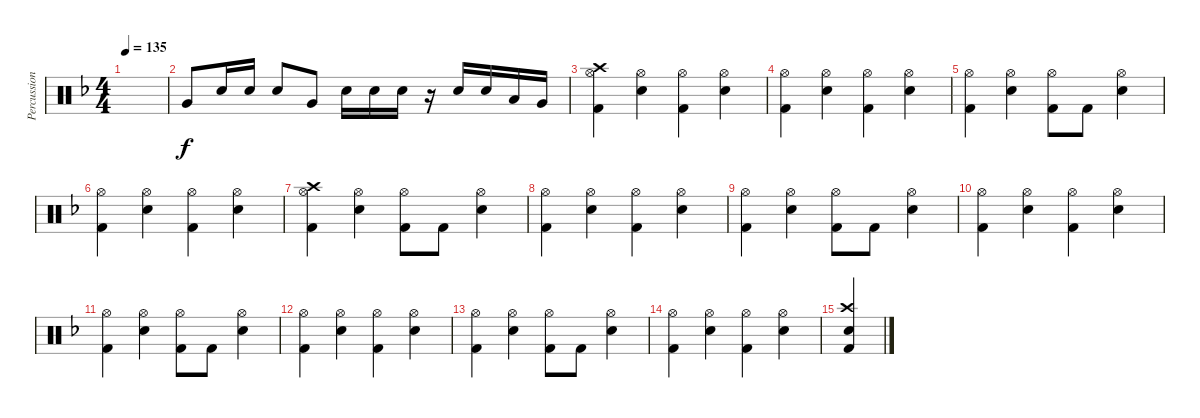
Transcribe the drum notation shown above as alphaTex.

\track ("Percussion" "Percussion") {instrument percussion}
\staff {score}
\articulation defaults
\ts (4 4)
\tempo 135
\clef neutral
\ks f
|
"Very Low Tom (hit)".8 "Snare (hit) 2".16 "Snare (hit) 2".16 "Snare (hit) 2".8 "Very Low Tom (hit)".8 "Snare (hit) 2".16 "Snare (hit) 2".16 "Snare (hit) 2".16 r.16 "Snare (hit) 2".16 "Snare (hit) 2".16 "Low Tom (hit)".16 "Very Low Tom (hit)".16 |
("Crash high (hit)" "Hi-Hat (open)" "Kick (hit) 2").4 ("Hi-Hat (open)" "Snare (hit) 2").4 ("Hi-Hat (open)" "Kick (hit) 2").4 ("Hi-Hat (open)" "Snare (hit) 2").4 |
("Hi-Hat (open)" "Kick (hit) 2").4 ("Hi-Hat (open)" "Snare (hit) 2").4 ("Hi-Hat (open)" "Kick (hit) 2").4 ("Hi-Hat (open)" "Snare (hit) 2").4 |
("Hi-Hat (open)" "Kick (hit) 2").4 ("Hi-Hat (open)" "Snare (hit) 2").4 ("Hi-Hat (open)" "Kick (hit) 2").8 "Kick (hit) 2".8 ("Hi-Hat (open)" "Snare (hit) 2").4 |
("Hi-Hat (open)" "Kick (hit) 2").4 ("Hi-Hat (open)" "Snare (hit) 2").4 ("Hi-Hat (open)" "Kick (hit) 2").4 ("Hi-Hat (open)" "Snare (hit) 2").4 |
("Crash high (hit)" "Hi-Hat (open)" "Kick (hit) 2").4 ("Hi-Hat (open)" "Snare (hit) 2").4 ("Hi-Hat (open)" "Kick (hit) 2").8 "Kick (hit) 2".8 ("Hi-Hat (open)" "Snare (hit) 2").4 |
("Hi-Hat (open)" "Kick (hit) 2").4 ("Hi-Hat (open)" "Snare (hit) 2").4 ("Hi-Hat (open)" "Kick (hit) 2").4 ("Hi-Hat (open)" "Snare (hit) 2").4 |
("Hi-Hat (open)" "Kick (hit) 2").4 ("Hi-Hat (open)" "Snare (hit) 2").4 ("Hi-Hat (open)" "Kick (hit) 2").8 "Kick (hit) 2".8 ("Hi-Hat (open)" "Snare (hit) 2").4 |
("Hi-Hat (open)" "Kick (hit) 2").4 ("Hi-Hat (open)" "Snare (hit) 2").4 ("Hi-Hat (open)" "Kick (hit) 2").4 ("Hi-Hat (open)" "Snare (hit) 2").4 |
("Hi-Hat (open)" "Kick (hit) 2").4 ("Hi-Hat (open)" "Snare (hit) 2").4 ("Hi-Hat (open)" "Kick (hit) 2").8 "Kick (hit) 2".8 ("Hi-Hat (open)" "Snare (hit) 2").4 |
("Hi-Hat (open)" "Kick (hit) 2").4 ("Hi-Hat (open)" "Snare (hit) 2").4 ("Hi-Hat (open)" "Kick (hit) 2").4 ("Hi-Hat (open)" "Snare (hit) 2").4 |
("Hi-Hat (open)" "Kick (hit) 2").4 ("Hi-Hat (open)" "Snare (hit) 2").4 ("Hi-Hat (open)" "Kick (hit) 2").8 "Kick (hit) 2".8 ("Hi-Hat (open)" "Snare (hit) 2").4 |
("Hi-Hat (open)" "Kick (hit) 2").4 ("Hi-Hat (open)" "Snare (hit) 2").4 ("Hi-Hat (open)" "Kick (hit) 2").4 ("Hi-Hat (open)" "Snare (hit) 2").4 |
("Crash high (hit)" "Snare (hit) 2" "Kick (hit) 2").4
